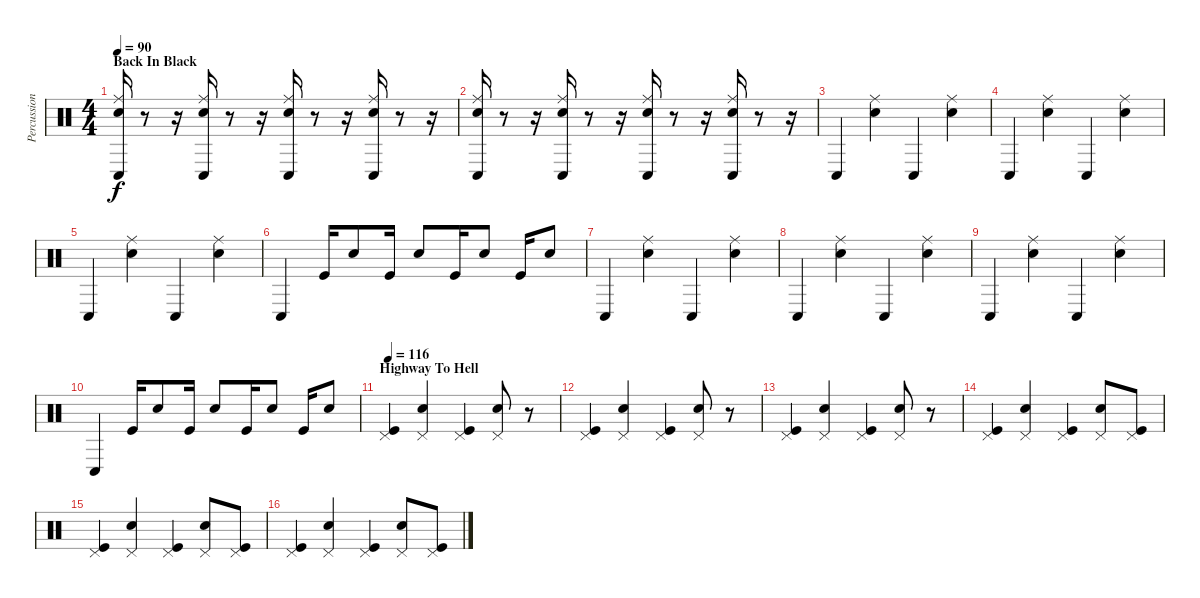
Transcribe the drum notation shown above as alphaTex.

\track ("Percussions" "Percussion") {instrument percussion}
\staff {score}
\articulation defaults
\ts (4 4)
\section ("" "Back In Black")
\tempo 90
\clef neutral
\ks c
("Conga low (hit)" "Snare (hit) 2" "Ride (middle)").16{dy f} r.8 r.16 ("Conga low (hit)" "Snare (hit) 2" "Ride (middle)").16 r.8 r.16 ("Conga low (hit)" "Snare (hit) 2" "Ride (middle)").16 r.8 r.16 ("Conga low (hit)" "Snare (hit) 2" "Ride (middle)").16 r.8 r.16 |
("Conga low (hit)" "Snare (hit) 2" "Ride (middle)").16 r.8 r.16 ("Conga low (hit)" "Snare (hit) 2" "Ride (middle)").16 r.8 r.16 ("Conga low (hit)" "Snare (hit) 2" "Ride (middle)").16 r.8 r.16 ("Conga low (hit)" "Snare (hit) 2" "Ride (middle)").16 r.8 r.16 |
"Conga low (hit)".4 ("Snare (hit) 2" "Ride (middle)").4 "Conga low (hit)".4 ("Snare (hit) 2" "Ride (middle)").4 |
"Conga low (hit)".4 ("Snare (hit) 2" "Ride (middle)").4 "Conga low (hit)".4 ("Snare (hit) 2" "Ride (middle)").4 |
"Conga low (hit)".4 ("Snare (hit) 2" "Ride (middle)").4 "Conga low (hit)".4 ("Snare (hit) 2" "Ride (middle)").4 |
"Conga low (hit)".4 "Kick (hit)".16 "Snare (hit) 2".8 "Kick (hit)".16 "Snare (hit) 2".8 "Kick (hit)".16 "Snare (hit) 2".8 "Kick (hit)".16 "Snare (hit) 2".8 |
"Conga low (hit)".4 ("Snare (hit) 2" "Ride (middle)").4 "Conga low (hit)".4 ("Snare (hit) 2" "Ride (middle)").4 |
"Conga low (hit)".4 ("Snare (hit) 2" "Ride (middle)").4 "Conga low (hit)".4 ("Snare (hit) 2" "Ride (middle)").4 |
"Conga low (hit)".4 ("Snare (hit) 2" "Ride (middle)").4 "Conga low (hit)".4 ("Snare (hit) 2" "Ride (middle)").4 |
"Conga low (hit)".4 "Kick (hit)".16 "Snare (hit) 2".8 "Kick (hit)".16 "Snare (hit) 2".8 "Kick (hit)".16 "Snare (hit) 2".8 "Kick (hit)".16 "Snare (hit) 2".8 |
\section ("" "Highway To Hell")
\tempo 116
("Pedal Hi-Hat (hit)" "Kick (hit)").4 ("Pedal Hi-Hat (hit)" "Electric Snare (hit)").4 ("Pedal Hi-Hat (hit)" "Kick (hit)").4 ("Pedal Hi-Hat (hit)" "Electric Snare (hit)").8 r.8 |
("Pedal Hi-Hat (hit)" "Kick (hit)").4 ("Pedal Hi-Hat (hit)" "Electric Snare (hit)").4 ("Pedal Hi-Hat (hit)" "Kick (hit)").4 ("Pedal Hi-Hat (hit)" "Electric Snare (hit)").8 r.8 |
("Pedal Hi-Hat (hit)" "Kick (hit)").4 ("Pedal Hi-Hat (hit)" "Electric Snare (hit)").4 ("Pedal Hi-Hat (hit)" "Kick (hit)").4 ("Pedal Hi-Hat (hit)" "Electric Snare (hit)").8 r.8 |
("Pedal Hi-Hat (hit)" "Kick (hit)").4 ("Pedal Hi-Hat (hit)" "Electric Snare (hit)").4 ("Pedal Hi-Hat (hit)" "Kick (hit)").4 ("Electric Snare (hit)" "Pedal Hi-Hat (hit)").8 ("Kick (hit)" "Pedal Hi-Hat (hit)").8 |
("Pedal Hi-Hat (hit)" "Kick (hit)").4 ("Pedal Hi-Hat (hit)" "Electric Snare (hit)").4 ("Pedal Hi-Hat (hit)" "Kick (hit)").4 ("Pedal Hi-Hat (hit)" "Electric Snare (hit)").8 ("Pedal Hi-Hat (hit)" "Kick (hit)").8 |
("Pedal Hi-Hat (hit)" "Kick (hit)").4 ("Pedal Hi-Hat (hit)" "Electric Snare (hit)").4 ("Pedal Hi-Hat (hit)" "Kick (hit)").4 ("Pedal Hi-Hat (hit)" "Electric Snare (hit)").8 ("Pedal Hi-Hat (hit)" "Kick (hit)").8
